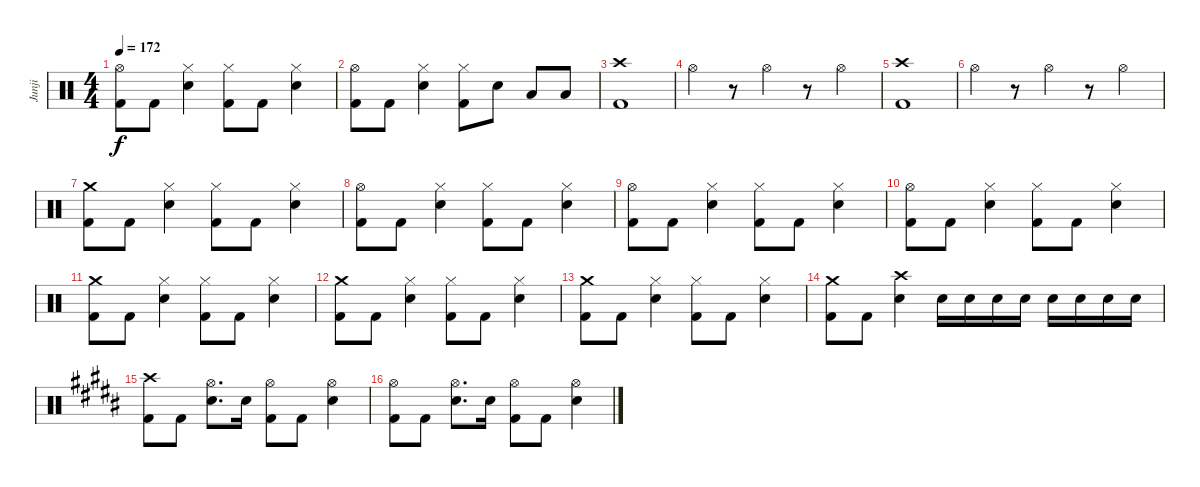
\track ("Junji" "Junji") {instrument percussion}
\staff {score}
\articulation defaults
\ts (4 4)
\tempo 172
\clef neutral
\ks c
("Hi-Hat (open)" "Kick (hit) 2").8{dy f} "Kick (hit) 2".8 ("Hi-Hat (closed)" "Snare (hit) 2").4 ("Hi-Hat (closed)" "Kick (hit) 2").8 "Kick (hit) 2".8 ("Hi-Hat (closed)" "Snare (hit) 2").4 |
("Hi-Hat (open)" "Kick (hit) 2").8 "Kick (hit) 2".8 ("Hi-Hat (closed)" "Snare (hit) 2").4 ("Hi-Hat (closed)" "Kick (hit) 2").8 "Snare (hit) 2".8 "Low Tom (hit)".8 "Low Tom (hit)".8 |
("Crash high (hit)" "Kick (hit) 2").1 |
"Hi-Hat (open)".4 r.8 "Hi-Hat (open)".4 r.8 "Hi-Hat (open)".4 |
("Crash high (hit)" "Kick (hit) 2").1 |
"Hi-Hat (open)".4 r.8 "Hi-Hat (open)".4 r.8 "Hi-Hat (open)".4 |
("Crash medium (hit)" "Kick (hit) 2").8 "Kick (hit) 2".8 ("Hi-Hat (closed)" "Snare (hit) 2").4 ("Hi-Hat (closed)" "Kick (hit) 2").8 "Kick (hit) 2".8 ("Hi-Hat (closed)" "Snare (hit) 2").4 |
("Hi-Hat (open)" "Kick (hit) 2").8 "Kick (hit) 2".8 ("Hi-Hat (closed)" "Snare (hit) 2").4 ("Hi-Hat (closed)" "Kick (hit) 2").8 "Kick (hit) 2".8 ("Hi-Hat (closed)" "Snare (hit) 2").4 |
("Hi-Hat (open)" "Kick (hit) 2").8 "Kick (hit) 2".8 ("Hi-Hat (closed)" "Snare (hit) 2").4 ("Hi-Hat (closed)" "Kick (hit) 2").8 "Kick (hit) 2".8 ("Hi-Hat (closed)" "Snare (hit) 2").4 |
("Hi-Hat (open)" "Kick (hit) 2").8 "Kick (hit) 2".8 ("Hi-Hat (closed)" "Snare (hit) 2").4 ("Hi-Hat (closed)" "Kick (hit) 2").8 "Kick (hit) 2".8 ("Hi-Hat (closed)" "Snare (hit) 2").4 |
("Crash medium (hit)" "Kick (hit) 2").8 "Kick (hit) 2".8 ("Hi-Hat (closed)" "Snare (hit) 2").4 ("Hi-Hat (closed)" "Kick (hit) 2").8 "Kick (hit) 2".8 ("Hi-Hat (closed)" "Snare (hit) 2").4 |
("Crash medium (hit)" "Kick (hit) 2").8 "Kick (hit) 2".8 ("Hi-Hat (closed)" "Snare (hit) 2").4 ("Hi-Hat (closed)" "Kick (hit) 2").8 "Kick (hit) 2".8 ("Hi-Hat (closed)" "Snare (hit) 2").4 |
("Crash medium (hit)" "Kick (hit) 2").8 "Kick (hit) 2".8 ("Hi-Hat (closed)" "Snare (hit) 2").4 ("Hi-Hat (closed)" "Kick (hit) 2").8 "Kick (hit) 2".8 ("Hi-Hat (closed)" "Snare (hit) 2").4 |
("Crash medium (hit)" "Kick (hit) 2").8 "Kick (hit) 2".8 ("Crash high (hit)" "Snare (hit) 2").4 "Snare (hit) 2".16 "Snare (hit) 2".16 "Snare (hit) 2".16 "Snare (hit) 2".16 "Snare (hit) 2".16 "Snare (hit) 2".16 "Snare (hit) 2".16 "Snare (hit) 2".16 |
\ks b
("Crash high (hit)" "Kick (hit) 2").8 "Kick (hit) 2".8 ("Hi-Hat (open)" "Snare (hit) 2").8{d} "Snare (hit) 2".16 ("Hi-Hat (open)" "Kick (hit) 2").8 "Kick (hit) 2".8 ("Hi-Hat (open)" "Snare (hit) 2").4 |
("Hi-Hat (open)" "Kick (hit) 2").8 "Kick (hit) 2".8 ("Hi-Hat (open)" "Snare (hit) 2").8{d} "Snare (hit) 2".16 ("Hi-Hat (open)" "Kick (hit) 2").8 "Kick (hit) 2".8 ("Hi-Hat (open)" "Snare (hit) 2").4
